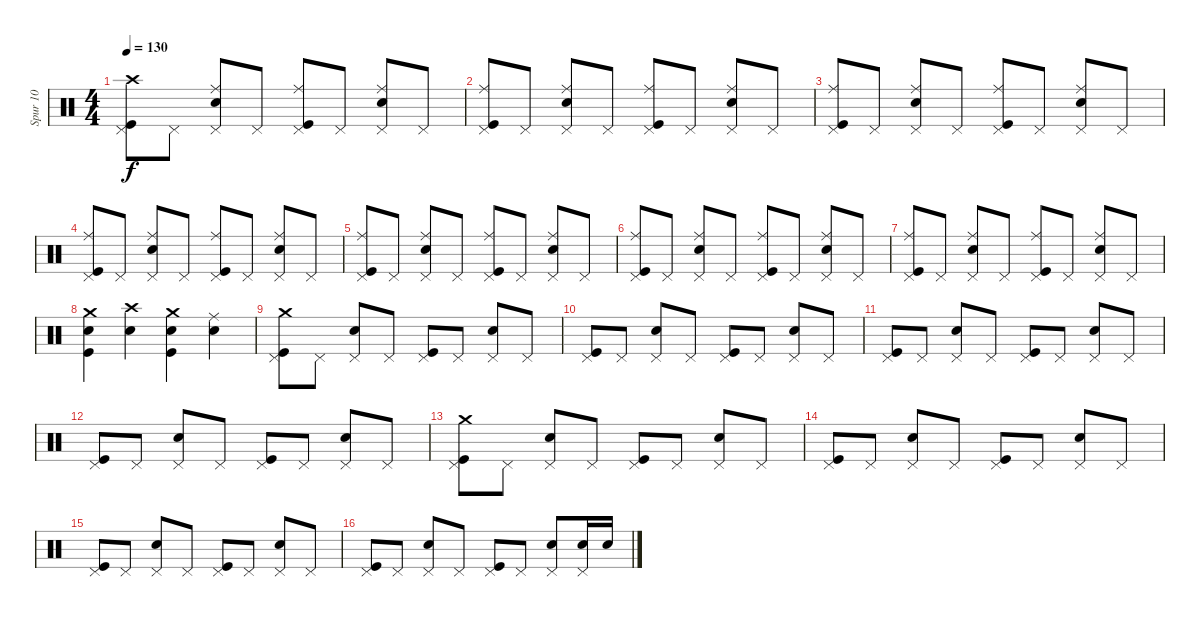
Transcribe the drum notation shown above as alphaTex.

\track ("Spur 10" "Spur 10") {instrument percussion}
\staff {score}
\articulation defaults
\ts (4 4)
\tempo 130
\clef neutral
\ks c
("Crash high (hit)" "Pedal Hi-Hat (hit)" "Kick (hit)").8{dy f} "Pedal Hi-Hat (hit)".8 ("Ride (middle)" "Pedal Hi-Hat (hit)" "Electric Snare (hit)").8 "Pedal Hi-Hat (hit)".8 ("Ride (middle)" "Pedal Hi-Hat (hit)" "Kick (hit)").8 "Pedal Hi-Hat (hit)".8 ("Ride (middle)" "Pedal Hi-Hat (hit)" "Electric Snare (hit)").8 "Pedal Hi-Hat (hit)".8 |
("Ride (middle)" "Pedal Hi-Hat (hit)" "Kick (hit)").8 "Pedal Hi-Hat (hit)".8 ("Ride (middle)" "Pedal Hi-Hat (hit)" "Electric Snare (hit)").8 "Pedal Hi-Hat (hit)".8 ("Ride (middle)" "Pedal Hi-Hat (hit)" "Kick (hit)").8 "Pedal Hi-Hat (hit)".8 ("Ride (middle)" "Pedal Hi-Hat (hit)" "Electric Snare (hit)").8 "Pedal Hi-Hat (hit)".8 |
("Ride (middle)" "Pedal Hi-Hat (hit)" "Kick (hit)").8 "Pedal Hi-Hat (hit)".8 ("Ride (middle)" "Pedal Hi-Hat (hit)" "Electric Snare (hit)").8 "Pedal Hi-Hat (hit)".8 ("Ride (middle)" "Pedal Hi-Hat (hit)" "Kick (hit)").8 "Pedal Hi-Hat (hit)".8 ("Ride (middle)" "Pedal Hi-Hat (hit)" "Electric Snare (hit)").8 "Pedal Hi-Hat (hit)".8 |
("Ride (middle)" "Pedal Hi-Hat (hit)" "Kick (hit)").8 "Pedal Hi-Hat (hit)".8 ("Ride (middle)" "Pedal Hi-Hat (hit)" "Electric Snare (hit)").8 "Pedal Hi-Hat (hit)".8 ("Ride (middle)" "Pedal Hi-Hat (hit)" "Kick (hit)").8 "Pedal Hi-Hat (hit)".8 ("Ride (middle)" "Pedal Hi-Hat (hit)" "Electric Snare (hit)").8 "Pedal Hi-Hat (hit)".8 |
("Ride (middle)" "Pedal Hi-Hat (hit)" "Kick (hit)").8 "Pedal Hi-Hat (hit)".8 ("Ride (middle)" "Pedal Hi-Hat (hit)" "Electric Snare (hit)").8 "Pedal Hi-Hat (hit)".8 ("Ride (middle)" "Pedal Hi-Hat (hit)" "Kick (hit)").8 "Pedal Hi-Hat (hit)".8 ("Ride (middle)" "Pedal Hi-Hat (hit)" "Electric Snare (hit)").8 "Pedal Hi-Hat (hit)".8 |
("Ride (middle)" "Pedal Hi-Hat (hit)" "Kick (hit)").8 "Pedal Hi-Hat (hit)".8 ("Ride (middle)" "Pedal Hi-Hat (hit)" "Electric Snare (hit)").8 "Pedal Hi-Hat (hit)".8 ("Ride (middle)" "Pedal Hi-Hat (hit)" "Kick (hit)").8 "Pedal Hi-Hat (hit)".8 ("Ride (middle)" "Pedal Hi-Hat (hit)" "Electric Snare (hit)").8 "Pedal Hi-Hat (hit)".8 |
("Ride (middle)" "Pedal Hi-Hat (hit)" "Kick (hit)").8 "Pedal Hi-Hat (hit)".8 ("Ride (middle)" "Pedal Hi-Hat (hit)" "Electric Snare (hit)").8 "Pedal Hi-Hat (hit)".8 ("Ride (middle)" "Pedal Hi-Hat (hit)" "Kick (hit)").8 "Pedal Hi-Hat (hit)".8 ("Ride (middle)" "Pedal Hi-Hat (hit)" "Electric Snare (hit)").8 "Pedal Hi-Hat (hit)".8 |
("Electric Snare (hit)" "Crash medium (hit)" "Kick (hit)").4 ("Crash high (hit)" "Electric Snare (hit)").4 ("Electric Snare (hit)" "Crash medium (hit)" "Kick (hit)").4 ("Ride (middle)" "Electric Snare (hit)").4 |
("Pedal Hi-Hat (hit)" "Kick (hit)" "Crash medium (hit)").8 "Pedal Hi-Hat (hit)".8 ("Pedal Hi-Hat (hit)" "Electric Snare (hit)").8 "Pedal Hi-Hat (hit)".8 ("Pedal Hi-Hat (hit)" "Kick (hit)").8 "Pedal Hi-Hat (hit)".8 ("Pedal Hi-Hat (hit)" "Electric Snare (hit)").8 "Pedal Hi-Hat (hit)".8 |
("Pedal Hi-Hat (hit)" "Kick (hit)").8 "Pedal Hi-Hat (hit)".8 ("Pedal Hi-Hat (hit)" "Electric Snare (hit)").8 "Pedal Hi-Hat (hit)".8 ("Pedal Hi-Hat (hit)" "Kick (hit)").8 "Pedal Hi-Hat (hit)".8 ("Pedal Hi-Hat (hit)" "Electric Snare (hit)").8 "Pedal Hi-Hat (hit)".8 |
("Pedal Hi-Hat (hit)" "Kick (hit)").8 "Pedal Hi-Hat (hit)".8 ("Pedal Hi-Hat (hit)" "Electric Snare (hit)").8 "Pedal Hi-Hat (hit)".8 ("Pedal Hi-Hat (hit)" "Kick (hit)").8 "Pedal Hi-Hat (hit)".8 ("Pedal Hi-Hat (hit)" "Electric Snare (hit)").8 "Pedal Hi-Hat (hit)".8 |
("Pedal Hi-Hat (hit)" "Kick (hit)").8 "Pedal Hi-Hat (hit)".8 ("Pedal Hi-Hat (hit)" "Electric Snare (hit)").8 "Pedal Hi-Hat (hit)".8 ("Pedal Hi-Hat (hit)" "Kick (hit)").8 "Pedal Hi-Hat (hit)".8 ("Pedal Hi-Hat (hit)" "Electric Snare (hit)").8 "Pedal Hi-Hat (hit)".8 |
("Pedal Hi-Hat (hit)" "Kick (hit)" "Crash medium (hit)").8 "Pedal Hi-Hat (hit)".8 ("Pedal Hi-Hat (hit)" "Electric Snare (hit)").8 "Pedal Hi-Hat (hit)".8 ("Pedal Hi-Hat (hit)" "Kick (hit)").8 "Pedal Hi-Hat (hit)".8 ("Pedal Hi-Hat (hit)" "Electric Snare (hit)").8 "Pedal Hi-Hat (hit)".8 |
("Pedal Hi-Hat (hit)" "Kick (hit)").8 "Pedal Hi-Hat (hit)".8 ("Pedal Hi-Hat (hit)" "Electric Snare (hit)").8 "Pedal Hi-Hat (hit)".8 ("Pedal Hi-Hat (hit)" "Kick (hit)").8 "Pedal Hi-Hat (hit)".8 ("Pedal Hi-Hat (hit)" "Electric Snare (hit)").8 "Pedal Hi-Hat (hit)".8 |
("Pedal Hi-Hat (hit)" "Kick (hit)").8 "Pedal Hi-Hat (hit)".8 ("Pedal Hi-Hat (hit)" "Electric Snare (hit)").8 "Pedal Hi-Hat (hit)".8 ("Pedal Hi-Hat (hit)" "Kick (hit)").8 "Pedal Hi-Hat (hit)".8 ("Pedal Hi-Hat (hit)" "Electric Snare (hit)").8 "Pedal Hi-Hat (hit)".8 |
("Pedal Hi-Hat (hit)" "Kick (hit)").8 "Pedal Hi-Hat (hit)".8 ("Pedal Hi-Hat (hit)" "Electric Snare (hit)").8 "Pedal Hi-Hat (hit)".8 ("Pedal Hi-Hat (hit)" "Kick (hit)").8 "Pedal Hi-Hat (hit)".8 ("Pedal Hi-Hat (hit)" "Electric Snare (hit)").8 ("Electric Snare (hit)" "Pedal Hi-Hat (hit)").16 "Electric Snare (hit)".16
